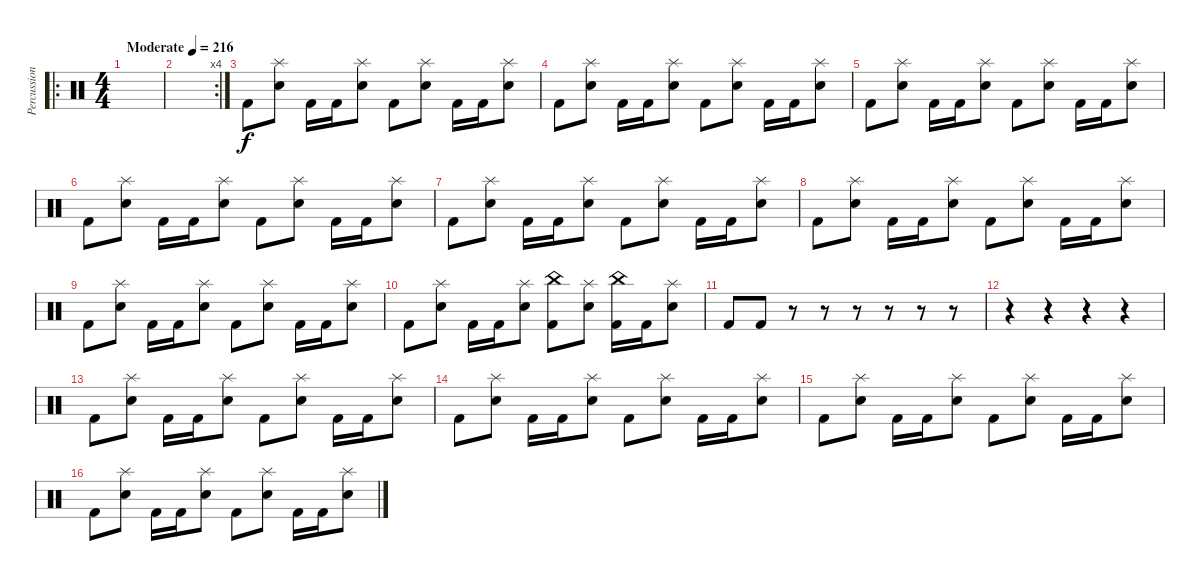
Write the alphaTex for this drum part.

\track ("Percussions" "Percussion") {instrument percussion}
\staff {score}
\articulation defaults
\ro
\ts (4 4)
\tempo (216 "Moderate")
\clef neutral
\ks c
|
\rc 4
|
"Kick (hit) 2".8{volume 0} ("Splash (hit)" "Electric Snare (hit)").8{volume 16} "Kick (hit) 2".16 "Kick (hit) 2".16 ("Splash (hit)" "Electric Snare (hit)").8 "Kick (hit) 2".8 ("Splash (hit)" "Electric Snare (hit)").8 "Kick (hit) 2".16 "Kick (hit) 2".16 ("Splash (hit)" "Electric Snare (hit)").8 |
"Kick (hit) 2".8 ("Splash (hit)" "Electric Snare (hit)").8 "Kick (hit) 2".16 "Kick (hit) 2".16 ("Splash (hit)" "Electric Snare (hit)").8 "Kick (hit) 2".8 ("Splash (hit)" "Electric Snare (hit)").8 "Kick (hit) 2".16 "Kick (hit) 2".16 ("Splash (hit)" "Electric Snare (hit)").8 |
"Kick (hit) 2".8 ("Splash (hit)" "Electric Snare (hit)").8 "Kick (hit) 2".16 "Kick (hit) 2".16 ("Splash (hit)" "Electric Snare (hit)").8 "Kick (hit) 2".8 ("Splash (hit)" "Electric Snare (hit)").8 "Kick (hit) 2".16 "Kick (hit) 2".16 ("Splash (hit)" "Electric Snare (hit)").8 |
"Kick (hit) 2".8 ("Splash (hit)" "Electric Snare (hit)").8 "Kick (hit) 2".16 "Kick (hit) 2".16 ("Splash (hit)" "Electric Snare (hit)").8 "Kick (hit) 2".8 ("Splash (hit)" "Electric Snare (hit)").8 "Kick (hit) 2".16 "Kick (hit) 2".16 ("Splash (hit)" "Electric Snare (hit)").8 |
"Kick (hit) 2".8 ("Splash (hit)" "Electric Snare (hit)").8 "Kick (hit) 2".16 "Kick (hit) 2".16 ("Splash (hit)" "Electric Snare (hit)").8 "Kick (hit) 2".8 ("Splash (hit)" "Electric Snare (hit)").8 "Kick (hit) 2".16 "Kick (hit) 2".16 ("Splash (hit)" "Electric Snare (hit)").8 |
"Kick (hit) 2".8 ("Splash (hit)" "Electric Snare (hit)").8 "Kick (hit) 2".16 "Kick (hit) 2".16 ("Splash (hit)" "Electric Snare (hit)").8 "Kick (hit) 2".8 ("Splash (hit)" "Electric Snare (hit)").8 "Kick (hit) 2".16 "Kick (hit) 2".16 ("Splash (hit)" "Electric Snare (hit)").8 |
"Kick (hit) 2".8 ("Splash (hit)" "Electric Snare (hit)").8 "Kick (hit) 2".16 "Kick (hit) 2".16 ("Splash (hit)" "Electric Snare (hit)").8 "Kick (hit) 2".8 ("Splash (hit)" "Electric Snare (hit)").8 "Kick (hit) 2".16 "Kick (hit) 2".16 ("Splash (hit)" "Electric Snare (hit)").8 |
"Kick (hit) 2".8 ("Splash (hit)" "Electric Snare (hit)").8 "Kick (hit) 2".16 "Kick (hit) 2".16 ("Splash (hit)" "Electric Snare (hit)").8 ("China (hit)" "Kick (hit) 2").8 ("Splash (hit)" "Electric Snare (hit)").8 ("China (hit)" "Kick (hit) 2").16 "Kick (hit) 2".16 ("Splash (hit)" "Electric Snare (hit)").8 |
"Kick (hit) 2".8 "Kick (hit) 2".8 r.8 r.8 r.8 r.8 r.8 r.8 |
r.4 r.4 r.4 r.4 |
"Kick (hit) 2".8 ("Splash (hit)" "Electric Snare (hit)").8 "Kick (hit) 2".16 "Kick (hit) 2".16 ("Splash (hit)" "Electric Snare (hit)").8 "Kick (hit) 2".8 ("Splash (hit)" "Electric Snare (hit)").8 "Kick (hit) 2".16 "Kick (hit) 2".16 ("Splash (hit)" "Electric Snare (hit)").8 |
"Kick (hit) 2".8 ("Splash (hit)" "Electric Snare (hit)").8 "Kick (hit) 2".16 "Kick (hit) 2".16 ("Splash (hit)" "Electric Snare (hit)").8 "Kick (hit) 2".8 ("Splash (hit)" "Electric Snare (hit)").8 "Kick (hit) 2".16 "Kick (hit) 2".16 ("Splash (hit)" "Electric Snare (hit)").8 |
"Kick (hit) 2".8 ("Splash (hit)" "Electric Snare (hit)").8 "Kick (hit) 2".16 "Kick (hit) 2".16 ("Splash (hit)" "Electric Snare (hit)").8 "Kick (hit) 2".8 ("Splash (hit)" "Electric Snare (hit)").8 "Kick (hit) 2".16 "Kick (hit) 2".16 ("Splash (hit)" "Electric Snare (hit)").8 |
"Kick (hit) 2".8 ("Splash (hit)" "Electric Snare (hit)").8 "Kick (hit) 2".16 "Kick (hit) 2".16 ("Splash (hit)" "Electric Snare (hit)").8 "Kick (hit) 2".8 ("Splash (hit)" "Electric Snare (hit)").8 "Kick (hit) 2".16 "Kick (hit) 2".16 ("Splash (hit)" "Electric Snare (hit)").8
